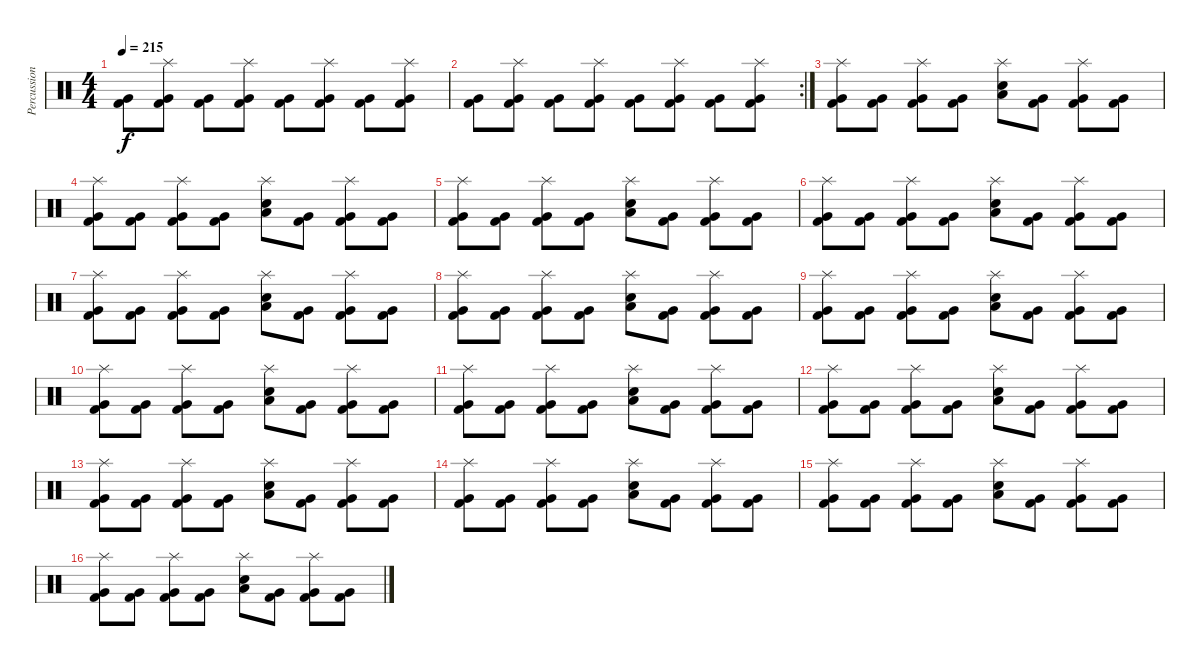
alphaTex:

\track ("Percussion" "Percussion") {instrument percussion}
\staff {score}
\articulation defaults
\ts (4 4)
\tempo 215
\clef neutral
\ks c
("Kick (hit) 2" "Very Low Tom (hit)").8{dy f} ("Splash (hit)" "Kick (hit) 2" "Very Low Tom (hit)").8 ("Kick (hit) 2" "Very Low Tom (hit)").8 ("Splash (hit)" "Kick (hit) 2" "Very Low Tom (hit)").8 ("Kick (hit) 2" "Very Low Tom (hit)").8 ("Splash (hit)" "Kick (hit) 2" "Very Low Tom (hit)").8 ("Kick (hit) 2" "Very Low Tom (hit)").8 ("Splash (hit)" "Kick (hit) 2" "Very Low Tom (hit)").8 |
\rc 2
("Kick (hit) 2" "Very Low Tom (hit)").8 ("Splash (hit)" "Kick (hit) 2" "Very Low Tom (hit)").8 ("Kick (hit) 2" "Very Low Tom (hit)").8 ("Splash (hit)" "Kick (hit) 2" "Very Low Tom (hit)").8 ("Kick (hit) 2" "Very Low Tom (hit)").8 ("Splash (hit)" "Kick (hit) 2" "Very Low Tom (hit)").8 ("Kick (hit) 2" "Very Low Tom (hit)").8 ("Splash (hit)" "Kick (hit) 2" "Very Low Tom (hit)").8 |
("Splash (hit)" "Kick (hit) 2" "Very Low Tom (hit)").8 ("Kick (hit) 2" "Very Low Tom (hit)").8 ("Splash (hit)" "Kick (hit) 2" "Very Low Tom (hit)").8 ("Kick (hit) 2" "Very Low Tom (hit)").8 ("Splash (hit)" "Low Floor Tom (hit)" "Electric Snare (hit)").8 ("Kick (hit) 2" "Very Low Tom (hit)").8 ("Splash (hit)" "Kick (hit) 2" "Very Low Tom (hit)").8 ("Kick (hit) 2" "Very Low Tom (hit)").8 |
("Splash (hit)" "Kick (hit) 2" "Very Low Tom (hit)").8 ("Kick (hit) 2" "Very Low Tom (hit)").8 ("Splash (hit)" "Kick (hit) 2" "Very Low Tom (hit)").8 ("Kick (hit) 2" "Very Low Tom (hit)").8 ("Splash (hit)" "Low Floor Tom (hit)" "Electric Snare (hit)").8 ("Kick (hit) 2" "Very Low Tom (hit)").8 ("Splash (hit)" "Kick (hit) 2" "Very Low Tom (hit)").8 ("Kick (hit) 2" "Very Low Tom (hit)").8 |
("Splash (hit)" "Kick (hit) 2" "Very Low Tom (hit)").8 ("Kick (hit) 2" "Very Low Tom (hit)").8 ("Splash (hit)" "Kick (hit) 2" "Very Low Tom (hit)").8 ("Kick (hit) 2" "Very Low Tom (hit)").8 ("Splash (hit)" "Low Floor Tom (hit)" "Electric Snare (hit)").8 ("Kick (hit) 2" "Very Low Tom (hit)").8 ("Splash (hit)" "Kick (hit) 2" "Very Low Tom (hit)").8 ("Kick (hit) 2" "Very Low Tom (hit)").8 |
("Splash (hit)" "Kick (hit) 2" "Very Low Tom (hit)").8 ("Kick (hit) 2" "Very Low Tom (hit)").8 ("Splash (hit)" "Kick (hit) 2" "Very Low Tom (hit)").8 ("Kick (hit) 2" "Very Low Tom (hit)").8 ("Splash (hit)" "Low Floor Tom (hit)" "Electric Snare (hit)").8 ("Kick (hit) 2" "Very Low Tom (hit)").8 ("Splash (hit)" "Kick (hit) 2" "Very Low Tom (hit)").8 ("Kick (hit) 2" "Very Low Tom (hit)").8 |
("Splash (hit)" "Kick (hit) 2" "Very Low Tom (hit)").8 ("Kick (hit) 2" "Very Low Tom (hit)").8 ("Splash (hit)" "Kick (hit) 2" "Very Low Tom (hit)").8 ("Kick (hit) 2" "Very Low Tom (hit)").8 ("Splash (hit)" "Low Floor Tom (hit)" "Electric Snare (hit)").8 ("Kick (hit) 2" "Very Low Tom (hit)").8 ("Splash (hit)" "Kick (hit) 2" "Very Low Tom (hit)").8 ("Kick (hit) 2" "Very Low Tom (hit)").8 |
("Splash (hit)" "Kick (hit) 2" "Very Low Tom (hit)").8 ("Kick (hit) 2" "Very Low Tom (hit)").8 ("Splash (hit)" "Kick (hit) 2" "Very Low Tom (hit)").8 ("Kick (hit) 2" "Very Low Tom (hit)").8 ("Splash (hit)" "Low Floor Tom (hit)" "Electric Snare (hit)").8 ("Kick (hit) 2" "Very Low Tom (hit)").8 ("Splash (hit)" "Kick (hit) 2" "Very Low Tom (hit)").8 ("Kick (hit) 2" "Very Low Tom (hit)").8 |
("Splash (hit)" "Kick (hit) 2" "Very Low Tom (hit)").8 ("Kick (hit) 2" "Very Low Tom (hit)").8 ("Splash (hit)" "Kick (hit) 2" "Very Low Tom (hit)").8 ("Kick (hit) 2" "Very Low Tom (hit)").8 ("Splash (hit)" "Low Floor Tom (hit)" "Electric Snare (hit)").8 ("Kick (hit) 2" "Very Low Tom (hit)").8 ("Splash (hit)" "Kick (hit) 2" "Very Low Tom (hit)").8 ("Kick (hit) 2" "Very Low Tom (hit)").8 |
("Splash (hit)" "Kick (hit) 2" "Very Low Tom (hit)").8 ("Kick (hit) 2" "Very Low Tom (hit)").8 ("Splash (hit)" "Kick (hit) 2" "Very Low Tom (hit)").8 ("Kick (hit) 2" "Very Low Tom (hit)").8 ("Splash (hit)" "Low Floor Tom (hit)" "Electric Snare (hit)").8 ("Kick (hit) 2" "Very Low Tom (hit)").8 ("Splash (hit)" "Kick (hit) 2" "Very Low Tom (hit)").8 ("Kick (hit) 2" "Very Low Tom (hit)").8 |
("Splash (hit)" "Kick (hit) 2" "Very Low Tom (hit)").8 ("Kick (hit) 2" "Very Low Tom (hit)").8 ("Splash (hit)" "Kick (hit) 2" "Very Low Tom (hit)").8 ("Kick (hit) 2" "Very Low Tom (hit)").8 ("Splash (hit)" "Low Floor Tom (hit)" "Electric Snare (hit)").8 ("Kick (hit) 2" "Very Low Tom (hit)").8 ("Splash (hit)" "Kick (hit) 2" "Very Low Tom (hit)").8 ("Kick (hit) 2" "Very Low Tom (hit)").8 |
("Splash (hit)" "Kick (hit) 2" "Very Low Tom (hit)").8 ("Kick (hit) 2" "Very Low Tom (hit)").8 ("Splash (hit)" "Kick (hit) 2" "Very Low Tom (hit)").8 ("Kick (hit) 2" "Very Low Tom (hit)").8 ("Splash (hit)" "Low Floor Tom (hit)" "Electric Snare (hit)").8 ("Kick (hit) 2" "Very Low Tom (hit)").8 ("Splash (hit)" "Kick (hit) 2" "Very Low Tom (hit)").8 ("Kick (hit) 2" "Very Low Tom (hit)").8 |
("Splash (hit)" "Kick (hit) 2" "Very Low Tom (hit)").8 ("Kick (hit) 2" "Very Low Tom (hit)").8 ("Splash (hit)" "Kick (hit) 2" "Very Low Tom (hit)").8 ("Kick (hit) 2" "Very Low Tom (hit)").8 ("Splash (hit)" "Low Floor Tom (hit)" "Electric Snare (hit)").8 ("Kick (hit) 2" "Very Low Tom (hit)").8 ("Splash (hit)" "Kick (hit) 2" "Very Low Tom (hit)").8 ("Kick (hit) 2" "Very Low Tom (hit)").8 |
("Splash (hit)" "Kick (hit) 2" "Very Low Tom (hit)").8 ("Kick (hit) 2" "Very Low Tom (hit)").8 ("Splash (hit)" "Kick (hit) 2" "Very Low Tom (hit)").8 ("Kick (hit) 2" "Very Low Tom (hit)").8 ("Splash (hit)" "Low Floor Tom (hit)" "Electric Snare (hit)").8 ("Kick (hit) 2" "Very Low Tom (hit)").8 ("Splash (hit)" "Kick (hit) 2" "Very Low Tom (hit)").8 ("Kick (hit) 2" "Very Low Tom (hit)").8 |
("Splash (hit)" "Kick (hit) 2" "Very Low Tom (hit)").8 ("Kick (hit) 2" "Very Low Tom (hit)").8 ("Splash (hit)" "Kick (hit) 2" "Very Low Tom (hit)").8 ("Kick (hit) 2" "Very Low Tom (hit)").8 ("Splash (hit)" "Low Floor Tom (hit)" "Electric Snare (hit)").8 ("Kick (hit) 2" "Very Low Tom (hit)").8 ("Splash (hit)" "Kick (hit) 2" "Very Low Tom (hit)").8 ("Kick (hit) 2" "Very Low Tom (hit)").8 |
("Splash (hit)" "Kick (hit) 2" "Very Low Tom (hit)").8 ("Kick (hit) 2" "Very Low Tom (hit)").8 ("Splash (hit)" "Kick (hit) 2" "Very Low Tom (hit)").8 ("Kick (hit) 2" "Very Low Tom (hit)").8 ("Splash (hit)" "Low Floor Tom (hit)" "Electric Snare (hit)").8 ("Kick (hit) 2" "Very Low Tom (hit)").8 ("Splash (hit)" "Kick (hit) 2" "Very Low Tom (hit)").8 ("Kick (hit) 2" "Very Low Tom (hit)").8
